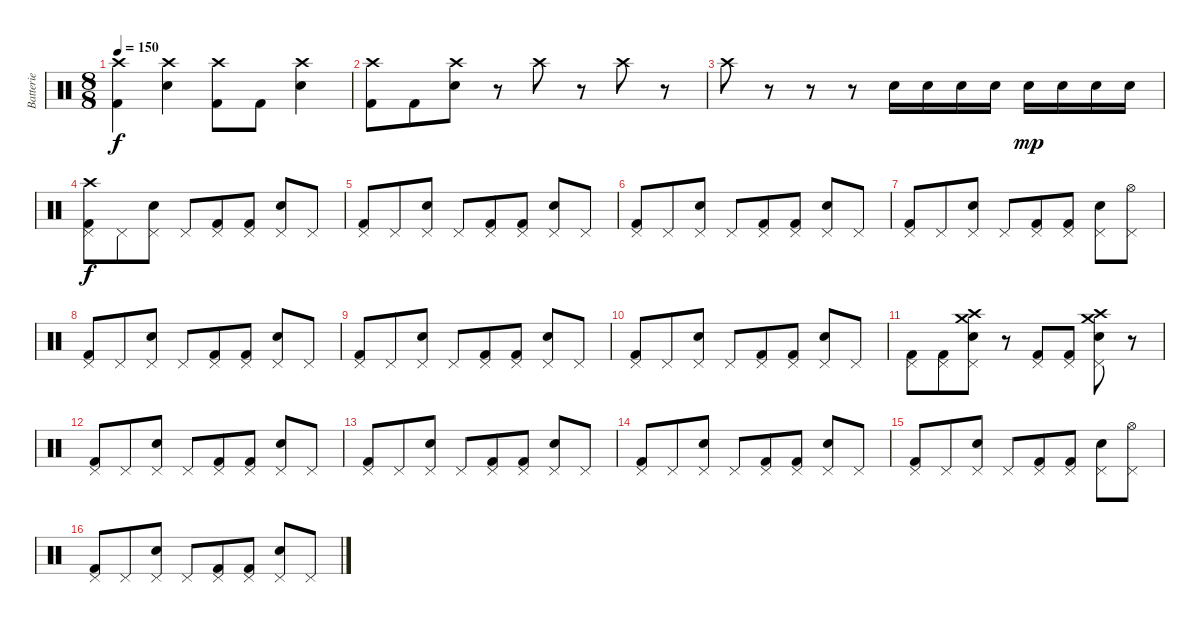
\track ("Batterie" "Batterie") {instrument percussion}
\staff {score}
\articulation defaults
\ts (8 8)
\tempo 150
\clef neutral
\ks c
("Crash high (hit)" "Kick (hit) 2").4{dy f} ("Crash high (hit)" "Snare (hit) 2").4 ("Crash high (hit)" "Kick (hit) 2").8 "Kick (hit) 2".8 ("Crash high (hit)" "Snare (hit) 2").4 |
("Crash high (hit)" "Kick (hit) 2").8 "Kick (hit) 2".8 ("Crash high (hit)" "Snare (hit) 2").8 r.8 "Crash high (hit)".8 r.8 "Crash high (hit)".8 r.8 |
"Crash high (hit)".8 r.8 r.8 r.8 "Snare (hit) 2".16 "Snare (hit) 2".16 "Snare (hit) 2".16 "Snare (hit) 2".16 "Snare (hit) 2".16{dy mp} "Snare (hit) 2".16 "Snare (hit) 2".16 "Snare (hit) 2".16 |
("Pedal Hi-Hat (hit)" "Crash high (hit)" "Kick (hit) 2").8{dy f} "Pedal Hi-Hat (hit)".8 ("Pedal Hi-Hat (hit)" "Snare (hit) 2").8 "Pedal Hi-Hat (hit)".8 ("Pedal Hi-Hat (hit)" "Kick (hit) 2").8 ("Pedal Hi-Hat (hit)" "Kick (hit) 2").8 ("Pedal Hi-Hat (hit)" "Snare (hit) 2").8 "Pedal Hi-Hat (hit)".8 |
("Pedal Hi-Hat (hit)" "Kick (hit) 2").8 "Pedal Hi-Hat (hit)".8 ("Pedal Hi-Hat (hit)" "Snare (hit) 2").8 "Pedal Hi-Hat (hit)".8 ("Pedal Hi-Hat (hit)" "Kick (hit) 2").8 ("Pedal Hi-Hat (hit)" "Kick (hit) 2").8 ("Pedal Hi-Hat (hit)" "Snare (hit) 2").8 "Pedal Hi-Hat (hit)".8 |
("Pedal Hi-Hat (hit)" "Kick (hit) 2").8 "Pedal Hi-Hat (hit)".8 ("Pedal Hi-Hat (hit)" "Snare (hit) 2").8 "Pedal Hi-Hat (hit)".8 ("Pedal Hi-Hat (hit)" "Kick (hit) 2").8 ("Pedal Hi-Hat (hit)" "Kick (hit) 2").8 ("Pedal Hi-Hat (hit)" "Snare (hit) 2").8 "Pedal Hi-Hat (hit)".8 |
("Pedal Hi-Hat (hit)" "Kick (hit) 2").8 "Pedal Hi-Hat (hit)".8 ("Pedal Hi-Hat (hit)" "Snare (hit) 2").8 "Pedal Hi-Hat (hit)".8 ("Pedal Hi-Hat (hit)" "Kick (hit) 2").8 ("Pedal Hi-Hat (hit)" "Kick (hit) 2").8 ("Pedal Hi-Hat (hit)" "Snare (hit) 2").8 ("Pedal Hi-Hat (hit)" "Hi-Hat (open)").8 |
("Pedal Hi-Hat (hit)" "Kick (hit) 2").8 "Pedal Hi-Hat (hit)".8 ("Pedal Hi-Hat (hit)" "Snare (hit) 2").8 "Pedal Hi-Hat (hit)".8 ("Pedal Hi-Hat (hit)" "Kick (hit) 2").8 ("Pedal Hi-Hat (hit)" "Kick (hit) 2").8 ("Pedal Hi-Hat (hit)" "Snare (hit) 2").8 "Pedal Hi-Hat (hit)".8 |
("Pedal Hi-Hat (hit)" "Kick (hit) 2").8 "Pedal Hi-Hat (hit)".8 ("Pedal Hi-Hat (hit)" "Snare (hit) 2").8 "Pedal Hi-Hat (hit)".8 ("Pedal Hi-Hat (hit)" "Kick (hit) 2").8 ("Pedal Hi-Hat (hit)" "Kick (hit) 2").8 ("Pedal Hi-Hat (hit)" "Snare (hit) 2").8 "Pedal Hi-Hat (hit)".8 |
("Pedal Hi-Hat (hit)" "Kick (hit) 2").8 "Pedal Hi-Hat (hit)".8 ("Pedal Hi-Hat (hit)" "Snare (hit) 2").8 "Pedal Hi-Hat (hit)".8 ("Pedal Hi-Hat (hit)" "Kick (hit) 2").8 ("Pedal Hi-Hat (hit)" "Kick (hit) 2").8 ("Pedal Hi-Hat (hit)" "Snare (hit) 2").8 "Pedal Hi-Hat (hit)".8 |
("Pedal Hi-Hat (hit)" "Kick (hit) 2").8 ("Pedal Hi-Hat (hit)" "Kick (hit) 2").8 ("Pedal Hi-Hat (hit)" "Crash medium (hit)" "Crash high (hit)" "Snare (hit) 2").8 r.8 ("Pedal Hi-Hat (hit)" "Kick (hit) 2").8 ("Pedal Hi-Hat (hit)" "Kick (hit) 2").8 ("Pedal Hi-Hat (hit)" "Crash medium (hit)" "Crash high (hit)" "Snare (hit) 2").8 r.8 |
("Pedal Hi-Hat (hit)" "Kick (hit) 2").8 "Pedal Hi-Hat (hit)".8 ("Pedal Hi-Hat (hit)" "Snare (hit) 2").8 "Pedal Hi-Hat (hit)".8 ("Pedal Hi-Hat (hit)" "Kick (hit) 2").8 ("Pedal Hi-Hat (hit)" "Kick (hit) 2").8 ("Pedal Hi-Hat (hit)" "Snare (hit) 2").8 "Pedal Hi-Hat (hit)".8 |
("Pedal Hi-Hat (hit)" "Kick (hit) 2").8 "Pedal Hi-Hat (hit)".8 ("Pedal Hi-Hat (hit)" "Snare (hit) 2").8 "Pedal Hi-Hat (hit)".8 ("Pedal Hi-Hat (hit)" "Kick (hit) 2").8 ("Pedal Hi-Hat (hit)" "Kick (hit) 2").8 ("Pedal Hi-Hat (hit)" "Snare (hit) 2").8 "Pedal Hi-Hat (hit)".8 |
("Pedal Hi-Hat (hit)" "Kick (hit) 2").8 "Pedal Hi-Hat (hit)".8 ("Pedal Hi-Hat (hit)" "Snare (hit) 2").8 "Pedal Hi-Hat (hit)".8 ("Pedal Hi-Hat (hit)" "Kick (hit) 2").8 ("Pedal Hi-Hat (hit)" "Kick (hit) 2").8 ("Pedal Hi-Hat (hit)" "Snare (hit) 2").8 "Pedal Hi-Hat (hit)".8 |
("Pedal Hi-Hat (hit)" "Kick (hit) 2").8 "Pedal Hi-Hat (hit)".8 ("Pedal Hi-Hat (hit)" "Snare (hit) 2").8 "Pedal Hi-Hat (hit)".8 ("Pedal Hi-Hat (hit)" "Kick (hit) 2").8 ("Pedal Hi-Hat (hit)" "Kick (hit) 2").8 ("Pedal Hi-Hat (hit)" "Snare (hit) 2").8 ("Pedal Hi-Hat (hit)" "Hi-Hat (open)").8 |
("Pedal Hi-Hat (hit)" "Kick (hit) 2").8 "Pedal Hi-Hat (hit)".8 ("Pedal Hi-Hat (hit)" "Snare (hit) 2").8 "Pedal Hi-Hat (hit)".8 ("Pedal Hi-Hat (hit)" "Kick (hit) 2").8 ("Pedal Hi-Hat (hit)" "Kick (hit) 2").8 ("Pedal Hi-Hat (hit)" "Snare (hit) 2").8 "Pedal Hi-Hat (hit)".8
